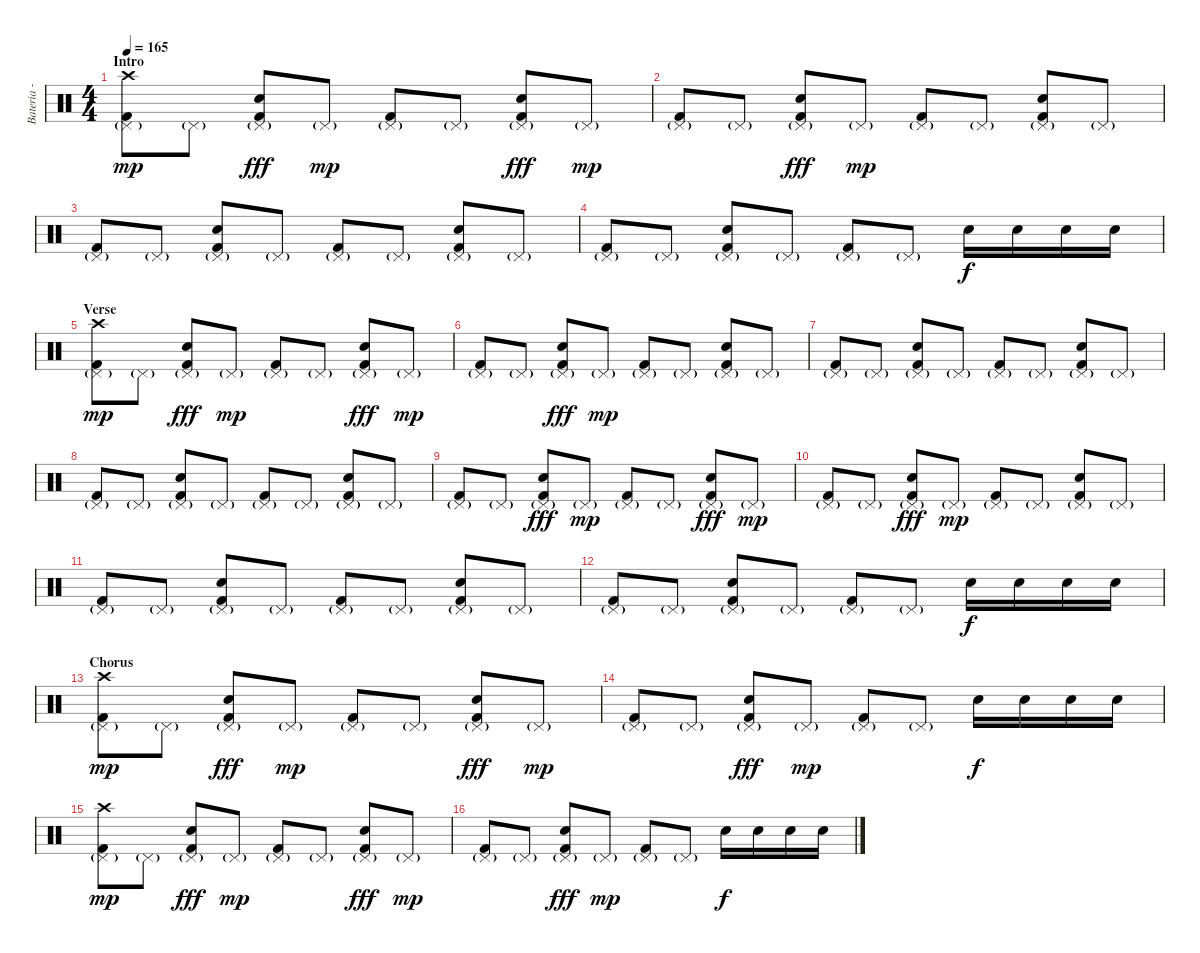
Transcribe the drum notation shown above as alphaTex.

\track ("Bateria - Larzon" "Bateria - ") {instrument percussion}
\staff {score}
\articulation defaults
\ts (4 4)
\section ("" "Intro")
\tempo 165
\clef neutral
\ks c
("Kick (hit) 2" "Pedal Hi-Hat (hit)"{g} "Crash high (hit)").8{dy mp} "Pedal Hi-Hat (hit)"{g}.8 ("Pedal Hi-Hat (hit)"{g} "Electric Snare (hit)" "Kick (hit) 2").8{dy fff} "Pedal Hi-Hat (hit)"{g}.8{dy mp} ("Kick (hit) 2" "Pedal Hi-Hat (hit)"{g}).8 "Pedal Hi-Hat (hit)"{g}.8 ("Pedal Hi-Hat (hit)"{g} "Electric Snare (hit)" "Kick (hit) 2").8{dy fff} "Pedal Hi-Hat (hit)"{g}.8{dy mp} |
("Kick (hit) 2" "Pedal Hi-Hat (hit)"{g}).8 "Pedal Hi-Hat (hit)"{g}.8 ("Pedal Hi-Hat (hit)"{g} "Electric Snare (hit)" "Kick (hit) 2").8{dy fff} "Pedal Hi-Hat (hit)"{g}.8{dy mp} ("Kick (hit) 2" "Pedal Hi-Hat (hit)"{g}).8 "Pedal Hi-Hat (hit)"{g}.8 ("Pedal Hi-Hat (hit)"{g} "Electric Snare (hit)" "Kick (hit) 2").8 "Pedal Hi-Hat (hit)"{g}.8 |
("Kick (hit) 2" "Pedal Hi-Hat (hit)"{g}).8 "Pedal Hi-Hat (hit)"{g}.8 ("Pedal Hi-Hat (hit)"{g} "Electric Snare (hit)" "Kick (hit) 2").8 "Pedal Hi-Hat (hit)"{g}.8 ("Kick (hit) 2" "Pedal Hi-Hat (hit)"{g}).8 "Pedal Hi-Hat (hit)"{g}.8 ("Pedal Hi-Hat (hit)"{g} "Electric Snare (hit)" "Kick (hit) 2").8 "Pedal Hi-Hat (hit)"{g}.8 |
("Kick (hit) 2" "Pedal Hi-Hat (hit)"{g}).8 "Pedal Hi-Hat (hit)"{g}.8 ("Pedal Hi-Hat (hit)"{g} "Electric Snare (hit)" "Kick (hit) 2").8 "Pedal Hi-Hat (hit)"{g}.8 ("Kick (hit) 2" "Pedal Hi-Hat (hit)"{g}).8 "Pedal Hi-Hat (hit)"{g}.8 "Snare (hit) 2".16{dy f} "Snare (hit) 2".16 "Snare (hit) 2".16 "Snare (hit) 2".16 |
\section ("" "Verse")
("Kick (hit) 2" "Pedal Hi-Hat (hit)"{g} "Crash high (hit)").8{dy mp} "Pedal Hi-Hat (hit)"{g}.8 ("Pedal Hi-Hat (hit)"{g} "Electric Snare (hit)" "Kick (hit) 2").8{dy fff} "Pedal Hi-Hat (hit)"{g}.8{dy mp} ("Kick (hit) 2" "Pedal Hi-Hat (hit)"{g}).8 "Pedal Hi-Hat (hit)"{g}.8 ("Pedal Hi-Hat (hit)"{g} "Electric Snare (hit)" "Kick (hit) 2").8{dy fff} "Pedal Hi-Hat (hit)"{g}.8{dy mp} |
("Kick (hit) 2" "Pedal Hi-Hat (hit)"{g}).8 "Pedal Hi-Hat (hit)"{g}.8 ("Pedal Hi-Hat (hit)"{g} "Electric Snare (hit)" "Kick (hit) 2").8{dy fff} "Pedal Hi-Hat (hit)"{g}.8{dy mp} ("Kick (hit) 2" "Pedal Hi-Hat (hit)"{g}).8 "Pedal Hi-Hat (hit)"{g}.8 ("Pedal Hi-Hat (hit)"{g} "Electric Snare (hit)" "Kick (hit) 2").8 "Pedal Hi-Hat (hit)"{g}.8 |
("Kick (hit) 2" "Pedal Hi-Hat (hit)"{g}).8 "Pedal Hi-Hat (hit)"{g}.8 ("Pedal Hi-Hat (hit)"{g} "Electric Snare (hit)" "Kick (hit) 2").8 "Pedal Hi-Hat (hit)"{g}.8 ("Kick (hit) 2" "Pedal Hi-Hat (hit)"{g}).8 "Pedal Hi-Hat (hit)"{g}.8 ("Pedal Hi-Hat (hit)"{g} "Electric Snare (hit)" "Kick (hit) 2").8 "Pedal Hi-Hat (hit)"{g}.8 |
("Kick (hit) 2" "Pedal Hi-Hat (hit)"{g}).8 "Pedal Hi-Hat (hit)"{g}.8 ("Pedal Hi-Hat (hit)"{g} "Electric Snare (hit)" "Kick (hit) 2").8 "Pedal Hi-Hat (hit)"{g}.8 ("Kick (hit) 2" "Pedal Hi-Hat (hit)"{g}).8 "Pedal Hi-Hat (hit)"{g}.8 ("Pedal Hi-Hat (hit)"{g} "Electric Snare (hit)" "Kick (hit) 2").8 "Pedal Hi-Hat (hit)"{g}.8 |
("Kick (hit) 2" "Pedal Hi-Hat (hit)"{g}).8 "Pedal Hi-Hat (hit)"{g}.8 ("Pedal Hi-Hat (hit)"{g} "Electric Snare (hit)" "Kick (hit) 2").8{dy fff} "Pedal Hi-Hat (hit)"{g}.8{dy mp} ("Kick (hit) 2" "Pedal Hi-Hat (hit)"{g}).8 "Pedal Hi-Hat (hit)"{g}.8 ("Pedal Hi-Hat (hit)"{g} "Electric Snare (hit)" "Kick (hit) 2").8{dy fff} "Pedal Hi-Hat (hit)"{g}.8{dy mp} |
("Kick (hit) 2" "Pedal Hi-Hat (hit)"{g}).8 "Pedal Hi-Hat (hit)"{g}.8 ("Pedal Hi-Hat (hit)"{g} "Electric Snare (hit)" "Kick (hit) 2").8{dy fff} "Pedal Hi-Hat (hit)"{g}.8{dy mp} ("Kick (hit) 2" "Pedal Hi-Hat (hit)"{g}).8 "Pedal Hi-Hat (hit)"{g}.8 ("Pedal Hi-Hat (hit)"{g} "Electric Snare (hit)" "Kick (hit) 2").8 "Pedal Hi-Hat (hit)"{g}.8 |
("Kick (hit) 2" "Pedal Hi-Hat (hit)"{g}).8 "Pedal Hi-Hat (hit)"{g}.8 ("Pedal Hi-Hat (hit)"{g} "Electric Snare (hit)" "Kick (hit) 2").8 "Pedal Hi-Hat (hit)"{g}.8 ("Kick (hit) 2" "Pedal Hi-Hat (hit)"{g}).8 "Pedal Hi-Hat (hit)"{g}.8 ("Pedal Hi-Hat (hit)"{g} "Electric Snare (hit)" "Kick (hit) 2").8 "Pedal Hi-Hat (hit)"{g}.8 |
("Kick (hit) 2" "Pedal Hi-Hat (hit)"{g}).8 "Pedal Hi-Hat (hit)"{g}.8 ("Pedal Hi-Hat (hit)"{g} "Electric Snare (hit)" "Kick (hit) 2").8 "Pedal Hi-Hat (hit)"{g}.8 ("Kick (hit) 2" "Pedal Hi-Hat (hit)"{g}).8 "Pedal Hi-Hat (hit)"{g}.8 "Snare (hit) 2".16{dy f} "Snare (hit) 2".16 "Snare (hit) 2".16 "Snare (hit) 2".16 |
\section ("" "Chorus")
("Kick (hit) 2" "Pedal Hi-Hat (hit)"{g} "Crash high (hit)").8{dy mp} "Pedal Hi-Hat (hit)"{g}.8 ("Pedal Hi-Hat (hit)"{g} "Electric Snare (hit)" "Kick (hit) 2").8{dy fff} "Pedal Hi-Hat (hit)"{g}.8{dy mp} ("Kick (hit) 2" "Pedal Hi-Hat (hit)"{g}).8 "Pedal Hi-Hat (hit)"{g}.8 ("Pedal Hi-Hat (hit)"{g} "Electric Snare (hit)" "Kick (hit) 2").8{dy fff} "Pedal Hi-Hat (hit)"{g}.8{dy mp} |
("Kick (hit) 2" "Pedal Hi-Hat (hit)"{g}).8 "Pedal Hi-Hat (hit)"{g}.8 ("Pedal Hi-Hat (hit)"{g} "Electric Snare (hit)" "Kick (hit) 2").8{dy fff} "Pedal Hi-Hat (hit)"{g}.8{dy mp} ("Kick (hit) 2" "Pedal Hi-Hat (hit)"{g}).8 "Pedal Hi-Hat (hit)"{g}.8 "Snare (hit) 2".16{dy f} "Snare (hit) 2".16 "Snare (hit) 2".16 "Snare (hit) 2".16 |
("Kick (hit) 2" "Pedal Hi-Hat (hit)"{g} "Crash high (hit)").8{dy mp} "Pedal Hi-Hat (hit)"{g}.8 ("Pedal Hi-Hat (hit)"{g} "Electric Snare (hit)" "Kick (hit) 2").8{dy fff} "Pedal Hi-Hat (hit)"{g}.8{dy mp} ("Kick (hit) 2" "Pedal Hi-Hat (hit)"{g}).8 "Pedal Hi-Hat (hit)"{g}.8 ("Pedal Hi-Hat (hit)"{g} "Electric Snare (hit)" "Kick (hit) 2").8{dy fff} "Pedal Hi-Hat (hit)"{g}.8{dy mp} |
("Kick (hit) 2" "Pedal Hi-Hat (hit)"{g}).8 "Pedal Hi-Hat (hit)"{g}.8 ("Pedal Hi-Hat (hit)"{g} "Electric Snare (hit)" "Kick (hit) 2").8{dy fff} "Pedal Hi-Hat (hit)"{g}.8{dy mp} ("Kick (hit) 2" "Pedal Hi-Hat (hit)"{g}).8 "Pedal Hi-Hat (hit)"{g}.8 "Snare (hit) 2".16{dy f} "Snare (hit) 2".16 "Snare (hit) 2".16 "Snare (hit) 2".16
